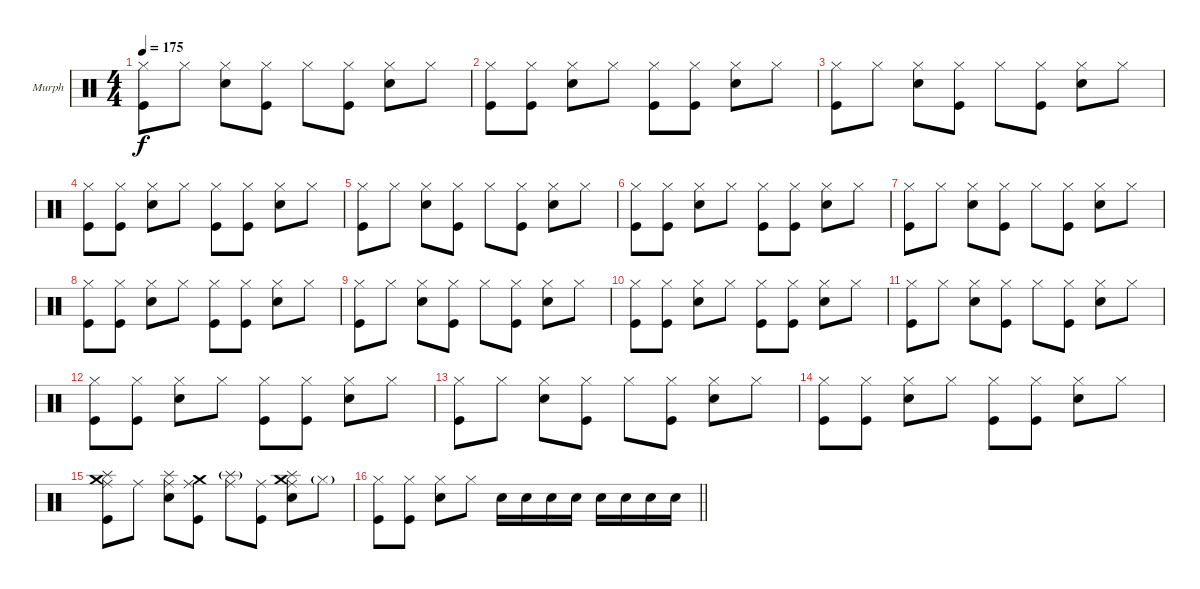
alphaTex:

\defaultSystemsLayout 4
\bracketExtendMode groupsimilarinstruments
\firstSystemTrackNameOrientation horizontal
\otherSystemsTrackNameOrientation horizontal
\track ("Murph" "Murph") {instrument percussion}
\staff {score}
\articulation defaults
\ts (4 4)
\tempo 175
\clef neutral
\scale
0.333333
\ks c
("Kick (hit)" "Hi-Hat (closed)").8{dy f} "Hi-Hat (closed)".8 ("Snare (hit) 2" "Hi-Hat (closed)").8 ("Kick (hit)" "Hi-Hat (closed)").8 "Hi-Hat (closed)".8 ("Kick (hit)" "Hi-Hat (closed)").8 ("Snare (hit) 2" "Hi-Hat (closed)").8 "Hi-Hat (closed)".8 |
\scale
0.333333 ("Kick (hit)" "Hi-Hat (closed)").8 ("Kick (hit)" "Hi-Hat (closed)").8 ("Snare (hit) 2" "Hi-Hat (closed)").8 "Hi-Hat (closed)".8 ("Kick (hit)" "Hi-Hat (closed)").8 ("Kick (hit)" "Hi-Hat (closed)").8 ("Snare (hit) 2" "Hi-Hat (closed)").8 "Hi-Hat (closed)".8 |
\scale
0.333333 ("Kick (hit)" "Hi-Hat (closed)").8 "Hi-Hat (closed)".8 ("Snare (hit) 2" "Hi-Hat (closed)").8 ("Kick (hit)" "Hi-Hat (closed)").8 "Hi-Hat (closed)".8 ("Kick (hit)" "Hi-Hat (closed)").8 ("Snare (hit) 2" "Hi-Hat (closed)").8 "Hi-Hat (closed)".8 |
\scale
0.333333 ("Kick (hit)" "Hi-Hat (closed)").8 ("Kick (hit)" "Hi-Hat (closed)").8 ("Snare (hit) 2" "Hi-Hat (closed)").8 "Hi-Hat (closed)".8 ("Kick (hit)" "Hi-Hat (closed)").8 ("Kick (hit)" "Hi-Hat (closed)").8 ("Snare (hit) 2" "Hi-Hat (closed)").8 "Hi-Hat (closed)".8 |
\scale
0.333333 ("Kick (hit)" "Hi-Hat (closed)").8 "Hi-Hat (closed)".8 ("Snare (hit) 2" "Hi-Hat (closed)").8 ("Kick (hit)" "Hi-Hat (closed)").8 "Hi-Hat (closed)".8 ("Kick (hit)" "Hi-Hat (closed)").8 ("Snare (hit) 2" "Hi-Hat (closed)").8 "Hi-Hat (closed)".8 |
\scale
0.333333 ("Kick (hit)" "Hi-Hat (closed)").8 ("Kick (hit)" "Hi-Hat (closed)").8 ("Snare (hit) 2" "Hi-Hat (closed)").8 "Hi-Hat (closed)".8 ("Kick (hit)" "Hi-Hat (closed)").8 ("Kick (hit)" "Hi-Hat (closed)").8 ("Snare (hit) 2" "Hi-Hat (closed)").8 "Hi-Hat (closed)".8 |
\scale
0.333333 ("Kick (hit)" "Hi-Hat (closed)").8 "Hi-Hat (closed)".8 ("Snare (hit) 2" "Hi-Hat (closed)").8 ("Kick (hit)" "Hi-Hat (closed)").8 "Hi-Hat (closed)".8 ("Kick (hit)" "Hi-Hat (closed)").8 ("Snare (hit) 2" "Hi-Hat (closed)").8 "Hi-Hat (closed)".8 |
\scale
0.333333 ("Kick (hit)" "Hi-Hat (closed)").8 ("Kick (hit)" "Hi-Hat (closed)").8 ("Snare (hit) 2" "Hi-Hat (closed)").8 "Hi-Hat (closed)".8 ("Kick (hit)" "Hi-Hat (closed)").8 ("Kick (hit)" "Hi-Hat (closed)").8 ("Snare (hit) 2" "Hi-Hat (closed)").8 "Hi-Hat (closed)".8 |
\scale
0.333333 ("Kick (hit)" "Hi-Hat (closed)").8 "Hi-Hat (closed)".8 ("Snare (hit) 2" "Hi-Hat (closed)").8 ("Kick (hit)" "Hi-Hat (closed)").8 "Hi-Hat (closed)".8 ("Kick (hit)" "Hi-Hat (closed)").8 ("Snare (hit) 2" "Hi-Hat (closed)").8 "Hi-Hat (closed)".8 |
\scale
0.333333 ("Kick (hit)" "Hi-Hat (closed)").8 ("Kick (hit)" "Hi-Hat (closed)").8 ("Snare (hit) 2" "Hi-Hat (closed)").8 "Hi-Hat (closed)".8 ("Kick (hit)" "Hi-Hat (closed)").8 ("Kick (hit)" "Hi-Hat (closed)").8 ("Snare (hit) 2" "Hi-Hat (closed)").8 "Hi-Hat (closed)".8 |
\scale
0.333333 ("Kick (hit)" "Hi-Hat (closed)").8 "Hi-Hat (closed)".8 ("Snare (hit) 2" "Hi-Hat (closed)").8 ("Kick (hit)" "Hi-Hat (closed)").8 "Hi-Hat (closed)".8 ("Kick (hit)" "Hi-Hat (closed)").8 ("Snare (hit) 2" "Hi-Hat (closed)").8 "Hi-Hat (closed)".8 |
\scale
0.333333 ("Kick (hit)" "Hi-Hat (closed)").8 ("Kick (hit)" "Hi-Hat (closed)").8 ("Snare (hit) 2" "Hi-Hat (closed)").8 "Hi-Hat (closed)".8 ("Kick (hit)" "Hi-Hat (closed)").8 ("Kick (hit)" "Hi-Hat (closed)").8 ("Snare (hit) 2" "Hi-Hat (closed)").8 "Hi-Hat (closed)".8 |
\scale
0.333333 ("Kick (hit)" "Hi-Hat (closed)").8 "Hi-Hat (closed)".8 ("Snare (hit) 2" "Hi-Hat (closed)").8 ("Kick (hit)" "Hi-Hat (closed)").8 "Hi-Hat (closed)".8 ("Kick (hit)" "Hi-Hat (closed)").8 ("Snare (hit) 2" "Hi-Hat (closed)").8 "Hi-Hat (closed)".8 |
\scale
0.333333 ("Kick (hit)" "Hi-Hat (closed)").8 ("Kick (hit)" "Hi-Hat (closed)").8 ("Snare (hit) 2" "Hi-Hat (closed)").8 "Hi-Hat (closed)".8 ("Kick (hit)" "Hi-Hat (closed)").8 ("Kick (hit)" "Hi-Hat (closed)").8 ("Snare (hit) 2" "Hi-Hat (closed)").8 "Hi-Hat (closed)".8 |
\scale
0.333333 ("Kick (hit)" "Ride (middle)" "Splash (hit)" "Crash medium (hit)").8 "Ride (middle)".8 ("Snare (hit) 2" "Ride (middle)" "Splash (hit)").8 ("Kick (hit)" "Ride (middle)" "Crash medium (hit)").8 ("Ride (middle)" "Splash (hit)"{g}).8 ("Kick (hit)" "Ride (middle)").8 ("Snare (hit) 2" "Ride (middle)" "Splash (hit)" "Crash medium (hit)").8 "Hi-Hat (closed)"{g}.8 |
\scale
0.333333
\barLineRight lightlight
("Kick (hit)" "Hi-Hat (closed)").8 ("Kick (hit)" "Hi-Hat (closed)").8 ("Snare (hit) 2" "Hi-Hat (closed)").8 "Hi-Hat (closed)".8 "Snare (hit) 2".16 "Snare (hit) 2".16 "Snare (hit) 2".16 "Snare (hit) 2".16 "Snare (hit) 2".16 "Snare (hit) 2".16 "Snare (hit) 2".16 "Snare (hit) 2".16
